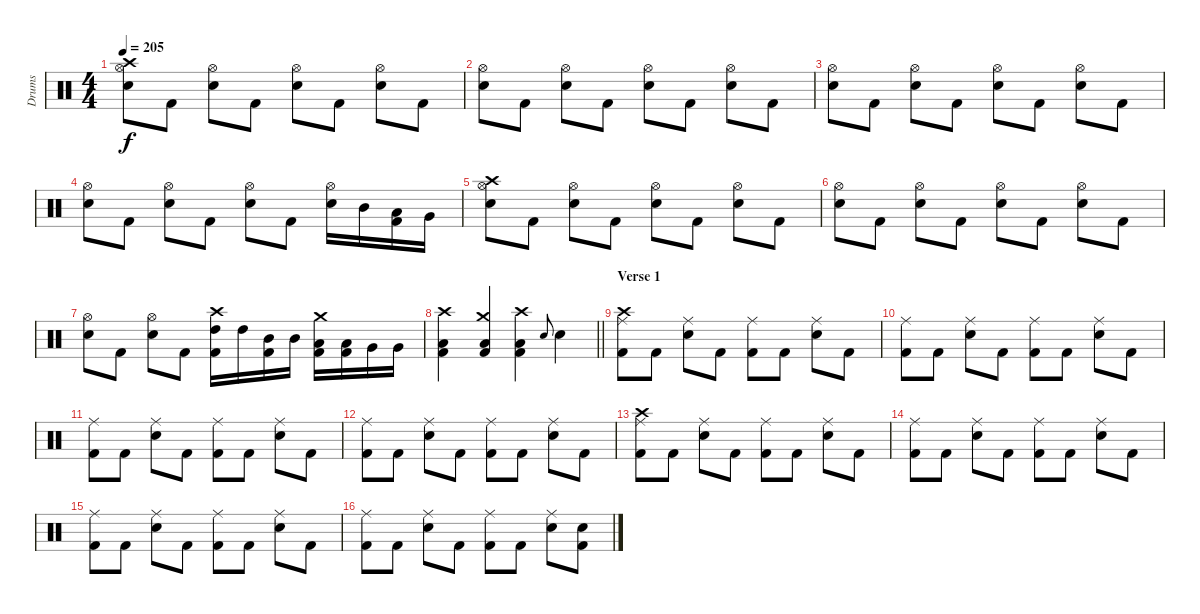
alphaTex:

\track ("Drums" "Drums") {instrument percussion}
\staff {score}
\articulation defaults
\ts (4 4)
\tempo 205
\clef neutral
\ks c
("Crash high (hit)" "Hi-Hat (open)" "Snare (hit) 2").8{dy f} "Kick (hit) 2".8 ("Hi-Hat (open)" "Snare (hit) 2").8 "Kick (hit) 2".8 ("Hi-Hat (open)" "Snare (hit) 2").8 "Kick (hit) 2".8 ("Hi-Hat (open)" "Snare (hit) 2").8 "Kick (hit) 2".8 |
("Hi-Hat (open)" "Snare (hit) 2").8 "Kick (hit) 2".8 ("Hi-Hat (open)" "Snare (hit) 2").8 "Kick (hit) 2".8 ("Hi-Hat (open)" "Snare (hit) 2").8 "Kick (hit) 2".8 ("Hi-Hat (open)" "Snare (hit) 2").8 "Kick (hit) 2".8 |
("Hi-Hat (open)" "Snare (hit) 2").8 "Kick (hit) 2".8 ("Hi-Hat (open)" "Snare (hit) 2").8 "Kick (hit) 2".8 ("Hi-Hat (open)" "Snare (hit) 2").8 "Kick (hit) 2".8 ("Hi-Hat (open)" "Snare (hit) 2").8 "Kick (hit) 2".8 |
("Hi-Hat (open)" "Snare (hit) 2").8 "Kick (hit) 2".8 ("Hi-Hat (open)" "Snare (hit) 2").8 "Kick (hit) 2".8 ("Hi-Hat (open)" "Snare (hit) 2").8 "Kick (hit) 2".8 ("Hi-Hat (open)" "Snare (hit) 2").16 "Mid Tom (hit)".16 ("Low Tom (hit)" "Kick (hit) 2").16 "Very Low Tom (hit)".16 |
("Crash high (hit)" "Hi-Hat (open)" "Snare (hit) 2").8 "Kick (hit) 2".8 ("Hi-Hat (open)" "Snare (hit) 2").8 "Kick (hit) 2".8 ("Hi-Hat (open)" "Snare (hit) 2").8 "Kick (hit) 2".8 ("Hi-Hat (open)" "Snare (hit) 2").8 "Kick (hit) 2".8 |
("Hi-Hat (open)" "Snare (hit) 2").8 "Kick (hit) 2".8 ("Hi-Hat (open)" "Snare (hit) 2").8 "Kick (hit) 2".8 ("Hi-Hat (open)" "Snare (hit) 2").8 "Kick (hit) 2".8 ("Hi-Hat (open)" "Snare (hit) 2").8 "Kick (hit) 2".8 |
("Hi-Hat (open)" "Snare (hit) 2").8 "Kick (hit) 2".8 ("Hi-Hat (open)" "Snare (hit) 2").8 "Kick (hit) 2".8 ("Crash high (hit)" "High Tom (hit)" "Kick (hit) 2").16 "High Tom (hit)".16 ("Mid Tom (hit)" "Kick (hit) 2").16 "Mid Tom (hit)".16 ("Crash medium (hit)" "Low Tom (hit)" "Kick (hit) 2").16 ("Low Tom (hit)" "Kick (hit) 2").16 "Very Low Tom (hit)".16 "Very Low Tom (hit)".16 |
\barLineRight lightlight
("Crash high (hit)" "Low Floor Tom (hit)" "Kick (hit) 2").4 ("Crash medium (hit)" "Low Floor Tom (hit)" "Kick (hit) 2").4 ("Crash high (hit)" "Low Floor Tom (hit)" "Kick (hit) 2").4 "Snare (hit) 2".8{gr onbeat} "Snare (hit) 2".4 |
\section ("" "Verse 1")
("Crash high (hit)" "Ride (middle)" "Kick (hit) 2").8 "Kick (hit) 2".8 ("Ride (middle)" "Snare (hit) 2").8 "Kick (hit) 2".8 ("Ride (middle)" "Kick (hit) 2").8 "Kick (hit) 2".8 ("Ride (middle)" "Snare (hit) 2").8 "Kick (hit) 2".8 |
("Ride (middle)" "Kick (hit) 2").8 "Kick (hit) 2".8 ("Ride (middle)" "Snare (hit) 2").8 "Kick (hit) 2".8 ("Ride (middle)" "Kick (hit) 2").8 "Kick (hit) 2".8 ("Ride (middle)" "Snare (hit) 2").8 "Kick (hit) 2".8 |
("Ride (middle)" "Kick (hit) 2").8 "Kick (hit) 2".8 ("Ride (middle)" "Snare (hit) 2").8 "Kick (hit) 2".8 ("Ride (middle)" "Kick (hit) 2").8 "Kick (hit) 2".8 ("Ride (middle)" "Snare (hit) 2").8 "Kick (hit) 2".8 |
("Ride (middle)" "Kick (hit) 2").8 "Kick (hit) 2".8 ("Ride (middle)" "Snare (hit) 2").8 "Kick (hit) 2".8 ("Ride (middle)" "Kick (hit) 2").8 "Kick (hit) 2".8 ("Ride (middle)" "Snare (hit) 2").8 "Kick (hit) 2".8 |
("Crash high (hit)" "Ride (middle)" "Kick (hit) 2").8 "Kick (hit) 2".8 ("Ride (middle)" "Snare (hit) 2").8 "Kick (hit) 2".8 ("Ride (middle)" "Kick (hit) 2").8 "Kick (hit) 2".8 ("Ride (middle)" "Snare (hit) 2").8 "Kick (hit) 2".8 |
("Ride (middle)" "Kick (hit) 2").8 "Kick (hit) 2".8 ("Ride (middle)" "Snare (hit) 2").8 "Kick (hit) 2".8 ("Ride (middle)" "Kick (hit) 2").8 "Kick (hit) 2".8 ("Ride (middle)" "Snare (hit) 2").8 "Kick (hit) 2".8 |
("Ride (middle)" "Kick (hit) 2").8 "Kick (hit) 2".8 ("Ride (middle)" "Snare (hit) 2").8 "Kick (hit) 2".8 ("Ride (middle)" "Kick (hit) 2").8 "Kick (hit) 2".8 ("Ride (middle)" "Snare (hit) 2").8 "Kick (hit) 2".8 |
("Ride (middle)" "Kick (hit) 2").8 "Kick (hit) 2".8 ("Ride (middle)" "Snare (hit) 2").8 "Kick (hit) 2".8 ("Ride (middle)" "Kick (hit) 2").8 "Kick (hit) 2".8 ("Ride (middle)" "Snare (hit) 2").8 ("Snare (hit) 2" "Kick (hit) 2").8
